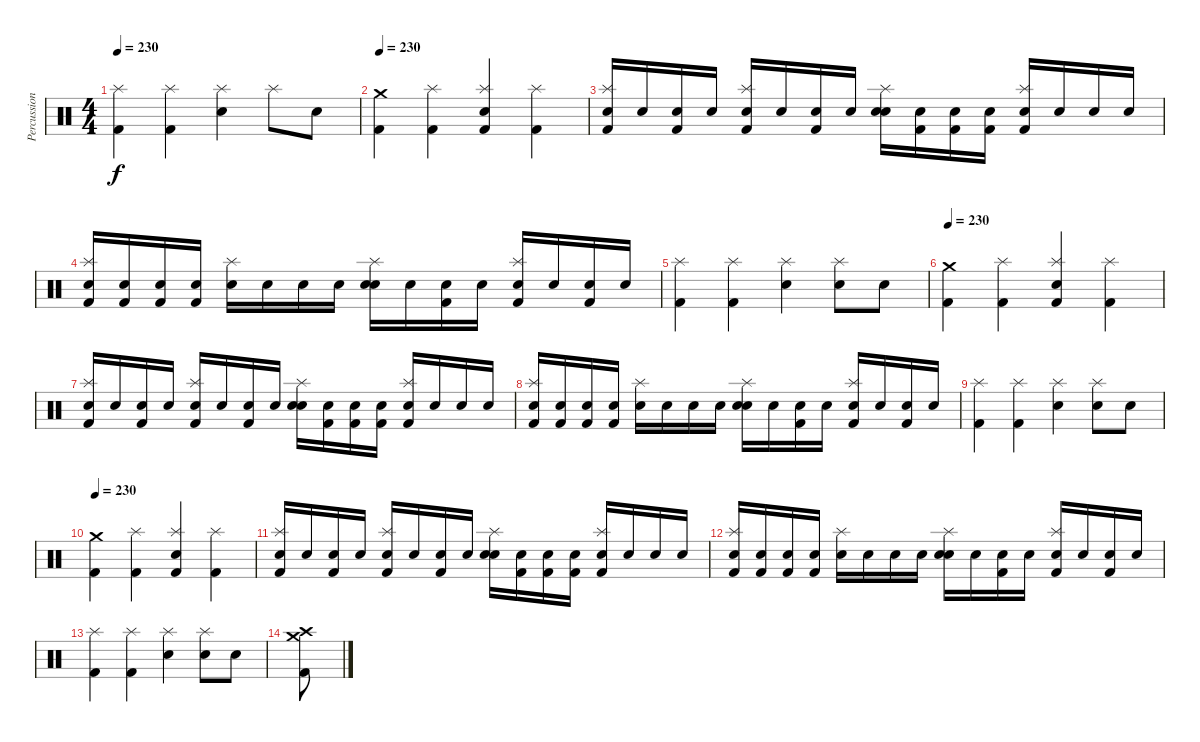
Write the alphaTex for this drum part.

\track ("Percussion" "Percussion") {instrument percussion}
\staff {score}
\articulation defaults
\ts (4 4)
\tempo 230
\clef neutral
\ks c
("Kick (hit) 2" "Splash (hit)").4{dy f} ("Kick (hit) 2" "Splash (hit)").4 ("Snare (hit) 2" "Splash (hit)").4 "Splash (hit)".8 "Snare (hit) 2".8 |
\tempo 230
("Crash medium (hit)" "Kick (hit) 2").4 ("Splash (hit)" "Kick (hit) 2").4 ("Splash (hit)" "Snare (hit) 2" "Kick (hit) 2").4 ("Splash (hit)" "Kick (hit) 2").4 |
("Splash (hit)" "Kick (hit) 2" "Snare (hit)").16 "Snare (hit)".16 ("Kick (hit) 2" "Snare (hit)").16 "Snare (hit)".16 ("Splash (hit)" "Kick (hit) 2" "Snare (hit)").16 "Snare (hit)".16 ("Kick (hit) 2" "Snare (hit)").16 "Snare (hit)".16 ("Splash (hit)" "Snare (hit) 2" "Snare (hit)").16 ("Kick (hit) 2" "Snare (hit)").16 ("Kick (hit) 2" "Snare (hit)").16 ("Kick (hit) 2" "Snare (hit)").16 ("Splash (hit)" "Kick (hit) 2" "Snare (hit)").16 "Snare (hit)".16 "Snare (hit)".16 "Snare (hit)".16 |
("Splash (hit)" "Kick (hit) 2" "Snare (hit)").16 ("Kick (hit) 2" "Snare (hit)").16 ("Kick (hit) 2" "Snare (hit)").16 ("Kick (hit) 2" "Snare (hit)").16 ("Splash (hit)" "Snare (hit)").16 "Snare (hit)".16 "Snare (hit)".16 "Snare (hit)".16 ("Splash (hit)" "Snare (hit) 2" "Snare (hit)").16 "Snare (hit)".16 ("Kick (hit) 2" "Snare (hit)").16 "Snare (hit)".16 ("Splash (hit)" "Kick (hit) 2" "Snare (hit)").16 "Snare (hit)".16 ("Kick (hit) 2" "Snare (hit)").16 "Snare (hit)".16 |
("Kick (hit) 2" "Splash (hit)").4 ("Kick (hit) 2" "Splash (hit)").4 ("Snare (hit) 2" "Splash (hit)").4 ("Snare (hit) 2" "Splash (hit)").8 "Snare (hit) 2".8 |
\tempo 230
("Crash medium (hit)" "Kick (hit) 2").4 ("Splash (hit)" "Kick (hit) 2").4 ("Splash (hit)" "Snare (hit) 2" "Kick (hit) 2").4 ("Splash (hit)" "Kick (hit) 2").4 |
("Splash (hit)" "Kick (hit) 2" "Snare (hit)").16 "Snare (hit)".16 ("Kick (hit) 2" "Snare (hit)").16 "Snare (hit)".16 ("Splash (hit)" "Kick (hit) 2" "Snare (hit)").16 "Snare (hit)".16 ("Kick (hit) 2" "Snare (hit)").16 "Snare (hit)".16 ("Splash (hit)" "Snare (hit) 2" "Snare (hit)").16 ("Kick (hit) 2" "Snare (hit)").16 ("Kick (hit) 2" "Snare (hit)").16 ("Kick (hit) 2" "Snare (hit)").16 ("Splash (hit)" "Kick (hit) 2" "Snare (hit)").16 "Snare (hit)".16 "Snare (hit)".16 "Snare (hit)".16 |
("Splash (hit)" "Kick (hit) 2" "Snare (hit)").16 ("Kick (hit) 2" "Snare (hit)").16 ("Kick (hit) 2" "Snare (hit)").16 ("Kick (hit) 2" "Snare (hit)").16 ("Splash (hit)" "Snare (hit)").16 "Snare (hit)".16 "Snare (hit)".16 "Snare (hit)".16 ("Splash (hit)" "Snare (hit) 2" "Snare (hit)").16 "Snare (hit)".16 ("Kick (hit) 2" "Snare (hit)").16 "Snare (hit)".16 ("Splash (hit)" "Kick (hit) 2" "Snare (hit)").16 "Snare (hit)".16 ("Kick (hit) 2" "Snare (hit)").16 "Snare (hit)".16 |
("Kick (hit) 2" "Splash (hit)").4 ("Kick (hit) 2" "Splash (hit)").4 ("Snare (hit) 2" "Splash (hit)").4 ("Snare (hit) 2" "Splash (hit)").8 "Snare (hit) 2".8 |
\tempo 230
("Crash medium (hit)" "Kick (hit) 2").4 ("Splash (hit)" "Kick (hit) 2").4 ("Splash (hit)" "Snare (hit) 2" "Kick (hit) 2").4 ("Splash (hit)" "Kick (hit) 2").4 |
("Splash (hit)" "Kick (hit) 2" "Snare (hit)").16 "Snare (hit)".16 ("Kick (hit) 2" "Snare (hit)").16 "Snare (hit)".16 ("Splash (hit)" "Kick (hit) 2" "Snare (hit)").16 "Snare (hit)".16 ("Kick (hit) 2" "Snare (hit)").16 "Snare (hit)".16 ("Splash (hit)" "Snare (hit) 2" "Snare (hit)").16 ("Kick (hit) 2" "Snare (hit)").16 ("Kick (hit) 2" "Snare (hit)").16 ("Kick (hit) 2" "Snare (hit)").16 ("Splash (hit)" "Kick (hit) 2" "Snare (hit)").16 "Snare (hit)".16 "Snare (hit)".16 "Snare (hit)".16 |
("Splash (hit)" "Kick (hit) 2" "Snare (hit)").16 ("Kick (hit) 2" "Snare (hit)").16 ("Kick (hit) 2" "Snare (hit)").16 ("Kick (hit) 2" "Snare (hit)").16 ("Splash (hit)" "Snare (hit)").16 "Snare (hit)".16 "Snare (hit)".16 "Snare (hit)".16 ("Splash (hit)" "Snare (hit) 2" "Snare (hit)").16 "Snare (hit)".16 ("Kick (hit) 2" "Snare (hit)").16 "Snare (hit)".16 ("Splash (hit)" "Kick (hit) 2" "Snare (hit)").16 "Snare (hit)".16 ("Kick (hit) 2" "Snare (hit)").16 "Snare (hit)".16 |
("Kick (hit) 2" "Splash (hit)").4 ("Kick (hit) 2" "Splash (hit)").4 ("Snare (hit) 2" "Splash (hit)").4 ("Snare (hit) 2" "Splash (hit)").8 "Snare (hit) 2".8 |
("Crash high (hit)" "Kick (hit) 2" "Crash medium (hit)").8
